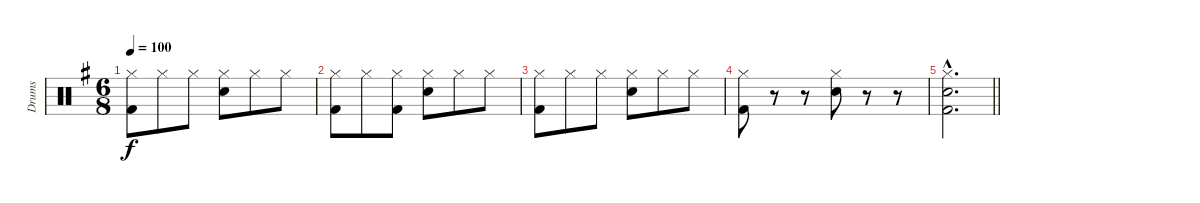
\track ("Drums" "Drums") {instrument percussion}
\staff {score}
\articulation defaults
\ts (6 8)
\tempo 100
\clef neutral
\ks g
("Hi-Hat (closed)" "Kick (hit) 2").8{dy f} "Hi-Hat (closed)".8 "Hi-Hat (closed)".8 ("Hi-Hat (closed)" "Electric Snare (hit)").8 "Hi-Hat (closed)".8 "Hi-Hat (closed)".8 |
("Hi-Hat (closed)" "Kick (hit) 2").8 "Hi-Hat (closed)".8 ("Hi-Hat (closed)" "Kick (hit) 2").8 ("Hi-Hat (closed)" "Electric Snare (hit)").8 "Hi-Hat (closed)".8 "Hi-Hat (closed)".8 |
("Hi-Hat (closed)" "Kick (hit) 2").8 "Hi-Hat (closed)".8 "Hi-Hat (closed)".8 ("Hi-Hat (closed)" "Electric Snare (hit)").8 "Hi-Hat (closed)".8 "Hi-Hat (closed)".8 |
("Hi-Hat (closed)" "Kick (hit) 2").8 r.8 r.8 ("Hi-Hat (closed)" "Electric Snare (hit)").8 r.8 r.8 |
\barLineRight lightlight
("Hi-Hat (closed)"{hac} "Electric Snare (hit)"{hac} "Kick (hit) 2"{hac}).2{d}
